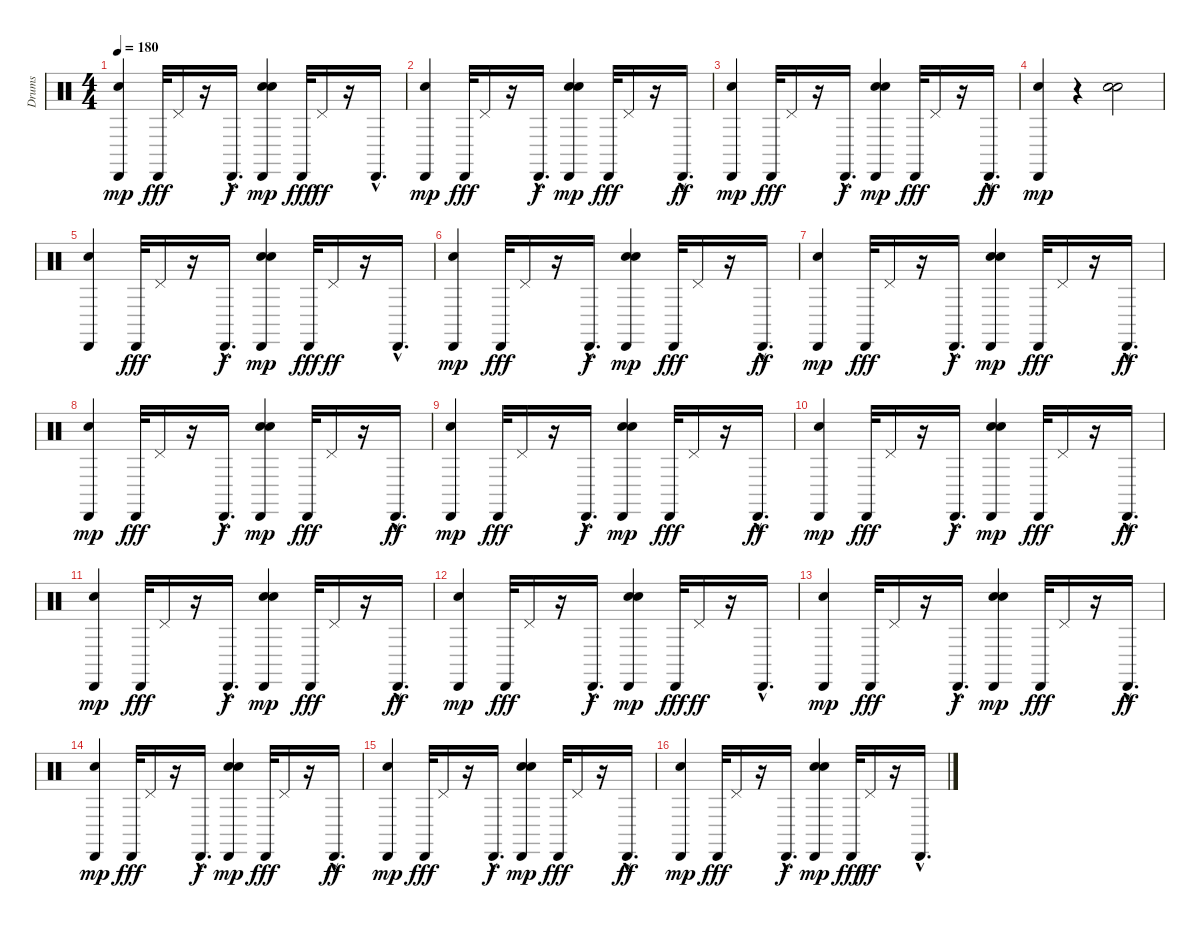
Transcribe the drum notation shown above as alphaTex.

\track ("Drums" "Drums") {instrument percussion}
\staff {score}
\articulation defaults
\ts (4 4)
\tempo 180
\clef neutral
\ks c
("Snare (hit) 2" "Cabasa (hit)").4{dy mp} "Cabasa (hit)".32{dy fff} "Pedal Hi-Hat (hit)".16 r.16 "Cabasa (hit)"{hac}.16{d dy f} ("Snare (hit) 2" "Snare (hit) 2" "Cabasa (hit)").4{dy mp} "Cabasa (hit)".32{dy fff} "Pedal Hi-Hat (hit)".16{dy ff} r.16 "Cabasa (hit)"{hac}.16{d} |
("Snare (hit) 2" "Cabasa (hit)").4{dy mp} "Cabasa (hit)".32{dy fff} "Pedal Hi-Hat (hit)".16 r.16 "Cabasa (hit)"{hac}.16{d dy f} ("Snare (hit) 2" "Snare (hit) 2" "Cabasa (hit)").4{dy mp} "Cabasa (hit)".32{dy fff} "Pedal Hi-Hat (hit)".16 r.16 "Cabasa (hit)"{hac}.16{d dy ff} |
("Snare (hit) 2" "Cabasa (hit)").4{dy mp} "Cabasa (hit)".32{dy fff} "Pedal Hi-Hat (hit)".16 r.16 "Cabasa (hit)"{hac}.16{d dy f} ("Snare (hit) 2" "Snare (hit) 2" "Cabasa (hit)").4{dy mp} "Cabasa (hit)".32{dy fff} "Pedal Hi-Hat (hit)".16 r.16 "Cabasa (hit)"{hac}.16{d dy ff} |
("Snare (hit) 2" "Cabasa (hit)").4{dy mp} r.4 ("Snare (hit) 2" "Snare (hit) 2").2 |
("Snare (hit) 2" "Cabasa (hit)").4 "Cabasa (hit)".32{dy fff} "Pedal Hi-Hat (hit)".16 r.16 "Cabasa (hit)"{hac}.16{d dy f} ("Snare (hit) 2" "Snare (hit) 2" "Cabasa (hit)").4{dy mp} "Cabasa (hit)".32{dy fff} "Pedal Hi-Hat (hit)".16{dy ff} r.16 "Cabasa (hit)"{hac}.16{d} |
("Snare (hit) 2" "Cabasa (hit)").4{dy mp} "Cabasa (hit)".32{dy fff} "Pedal Hi-Hat (hit)".16 r.16 "Cabasa (hit)"{hac}.16{d dy f} ("Snare (hit) 2" "Snare (hit) 2" "Cabasa (hit)").4{dy mp} "Cabasa (hit)".32{dy fff} "Pedal Hi-Hat (hit)".16 r.16 "Cabasa (hit)"{hac}.16{d dy ff} |
("Snare (hit) 2" "Cabasa (hit)").4{dy mp} "Cabasa (hit)".32{dy fff} "Pedal Hi-Hat (hit)".16 r.16 "Cabasa (hit)"{hac}.16{d dy f} ("Snare (hit) 2" "Snare (hit) 2" "Cabasa (hit)").4{dy mp} "Cabasa (hit)".32{dy fff} "Pedal Hi-Hat (hit)".16 r.16 "Cabasa (hit)"{hac}.16{d dy ff} |
("Snare (hit) 2" "Cabasa (hit)").4{dy mp} "Cabasa (hit)".32{dy fff} "Pedal Hi-Hat (hit)".16 r.16 "Cabasa (hit)"{hac}.16{d dy f} ("Snare (hit) 2" "Snare (hit) 2" "Cabasa (hit)").4{dy mp} "Cabasa (hit)".32{dy fff} "Pedal Hi-Hat (hit)".16 r.16 "Cabasa (hit)"{hac}.16{d dy ff} |
("Snare (hit) 2" "Cabasa (hit)").4{dy mp} "Cabasa (hit)".32{dy fff} "Pedal Hi-Hat (hit)".16 r.16 "Cabasa (hit)"{hac}.16{d dy f} ("Snare (hit) 2" "Snare (hit) 2" "Cabasa (hit)").4{dy mp} "Cabasa (hit)".32{dy fff} "Pedal Hi-Hat (hit)".16 r.16 "Cabasa (hit)"{hac}.16{d dy ff} |
("Snare (hit) 2" "Cabasa (hit)").4{dy mp} "Cabasa (hit)".32{dy fff} "Pedal Hi-Hat (hit)".16 r.16 "Cabasa (hit)"{hac}.16{d dy f} ("Snare (hit) 2" "Snare (hit) 2" "Cabasa (hit)").4{dy mp} "Cabasa (hit)".32{dy fff} "Pedal Hi-Hat (hit)".16 r.16 "Cabasa (hit)"{hac}.16{d dy ff} |
("Snare (hit) 2" "Cabasa (hit)").4{dy mp} "Cabasa (hit)".32{dy fff} "Pedal Hi-Hat (hit)".16 r.16 "Cabasa (hit)"{hac}.16{d dy f} ("Snare (hit) 2" "Snare (hit) 2" "Cabasa (hit)").4{dy mp} "Cabasa (hit)".32{dy fff} "Pedal Hi-Hat (hit)".16 r.16 "Cabasa (hit)"{hac}.16{d dy ff} |
("Snare (hit) 2" "Cabasa (hit)").4{dy mp} "Cabasa (hit)".32{dy fff} "Pedal Hi-Hat (hit)".16 r.16 "Cabasa (hit)"{hac}.16{d dy f} ("Snare (hit) 2" "Snare (hit) 2" "Cabasa (hit)").4{dy mp} "Cabasa (hit)".32{dy fff} "Pedal Hi-Hat (hit)".16{dy ff} r.16 "Cabasa (hit)"{hac}.16{d} |
("Snare (hit) 2" "Cabasa (hit)").4{dy mp} "Cabasa (hit)".32{dy fff} "Pedal Hi-Hat (hit)".16 r.16 "Cabasa (hit)"{hac}.16{d dy f} ("Snare (hit) 2" "Snare (hit) 2" "Cabasa (hit)").4{dy mp} "Cabasa (hit)".32{dy fff} "Pedal Hi-Hat (hit)".16 r.16 "Cabasa (hit)"{hac}.16{d dy ff} |
("Snare (hit) 2" "Cabasa (hit)").4{dy mp} "Cabasa (hit)".32{dy fff} "Pedal Hi-Hat (hit)".16 r.16 "Cabasa (hit)"{hac}.16{d dy f} ("Snare (hit) 2" "Snare (hit) 2" "Cabasa (hit)").4{dy mp} "Cabasa (hit)".32{dy fff} "Pedal Hi-Hat (hit)".16 r.16 "Cabasa (hit)"{hac}.16{d dy ff} |
("Snare (hit) 2" "Cabasa (hit)").4{dy mp} "Cabasa (hit)".32{dy fff} "Pedal Hi-Hat (hit)".16 r.16 "Cabasa (hit)"{hac}.16{d dy f} ("Snare (hit) 2" "Snare (hit) 2" "Cabasa (hit)").4{dy mp} "Cabasa (hit)".32{dy fff} "Pedal Hi-Hat (hit)".16 r.16 "Cabasa (hit)"{hac}.16{d dy ff} |
("Snare (hit) 2" "Cabasa (hit)").4{dy mp} "Cabasa (hit)".32{dy fff} "Pedal Hi-Hat (hit)".16 r.16 "Cabasa (hit)"{hac}.16{d dy f} ("Snare (hit) 2" "Snare (hit) 2" "Cabasa (hit)").4{dy mp} "Cabasa (hit)".32{dy fff} "Pedal Hi-Hat (hit)".16{dy ff} r.16 "Cabasa (hit)"{hac}.16{d}
